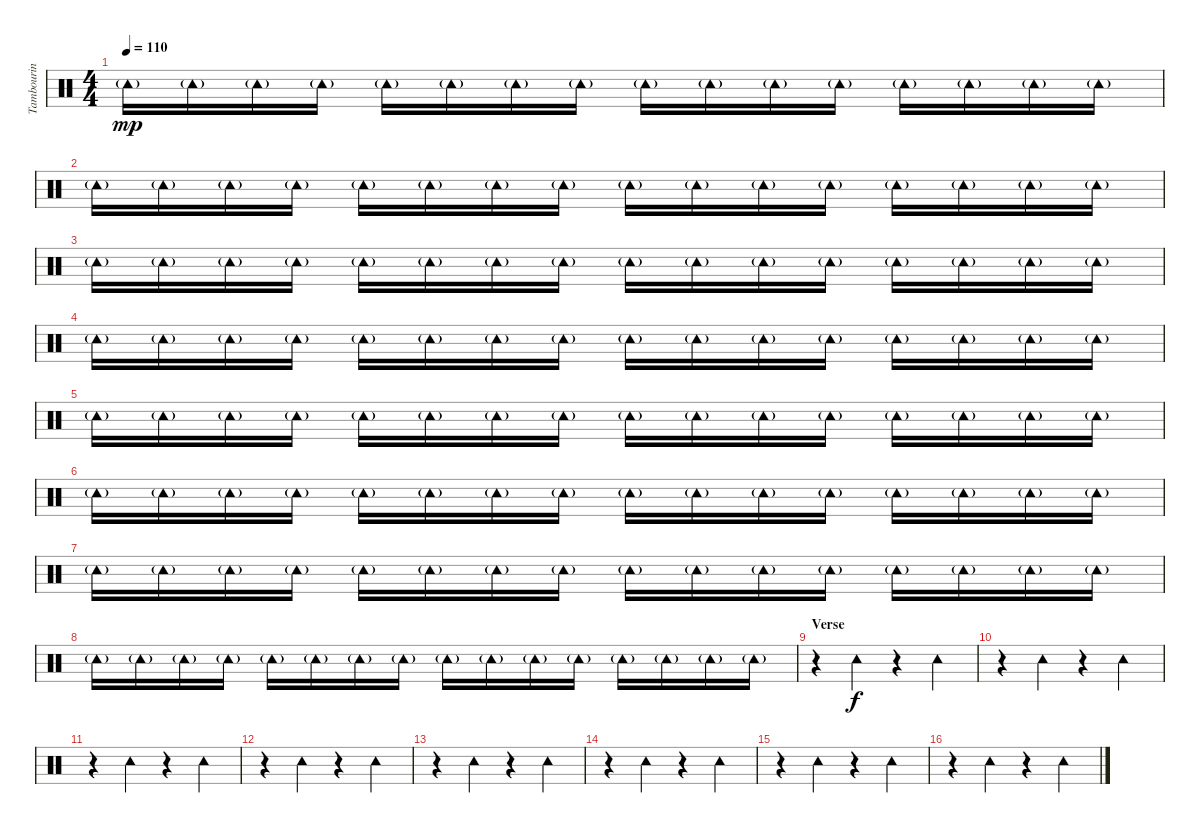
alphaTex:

\track ("Tambourin" "Tambourin") {instrument percussion}
\staff {score}
\articulation defaults
\ts (4 4)
\tempo 110
\clef neutral
\ks c "Tambourine (hit)"{g}.16{dy mp} "Tambourine (hit)"{g}.16 "Tambourine (hit)"{g}.16 "Tambourine (hit)"{g}.16 "Tambourine (hit)"{g}.16 "Tambourine (hit)"{g}.16 "Tambourine (hit)"{g}.16 "Tambourine (hit)"{g}.16 "Tambourine (hit)"{g}.16 "Tambourine (hit)"{g}.16 "Tambourine (hit)"{g}.16 "Tambourine (hit)"{g}.16 "Tambourine (hit)"{g}.16 "Tambourine (hit)"{g}.16 "Tambourine (hit)"{g}.16 "Tambourine (hit)"{g}.16
|
"Tambourine (hit)"{g}.16 "Tambourine (hit)"{g}.16 "Tambourine (hit)"{g}.16 "Tambourine (hit)"{g}.16 "Tambourine (hit)"{g}.16 "Tambourine (hit)"{g}.16 "Tambourine (hit)"{g}.16 "Tambourine (hit)"{g}.16 "Tambourine (hit)"{g}.16 "Tambourine (hit)"{g}.16 "Tambourine (hit)"{g}.16 "Tambourine (hit)"{g}.16 "Tambourine (hit)"{g}.16 "Tambourine (hit)"{g}.16 "Tambourine (hit)"{g}.16 "Tambourine (hit)"{g}.16 |
"Tambourine (hit)"{g}.16 "Tambourine (hit)"{g}.16 "Tambourine (hit)"{g}.16 "Tambourine (hit)"{g}.16 "Tambourine (hit)"{g}.16 "Tambourine (hit)"{g}.16 "Tambourine (hit)"{g}.16 "Tambourine (hit)"{g}.16 "Tambourine (hit)"{g}.16 "Tambourine (hit)"{g}.16 "Tambourine (hit)"{g}.16 "Tambourine (hit)"{g}.16 "Tambourine (hit)"{g}.16 "Tambourine (hit)"{g}.16 "Tambourine (hit)"{g}.16 "Tambourine (hit)"{g}.16 |
"Tambourine (hit)"{g}.16 "Tambourine (hit)"{g}.16 "Tambourine (hit)"{g}.16 "Tambourine (hit)"{g}.16 "Tambourine (hit)"{g}.16 "Tambourine (hit)"{g}.16 "Tambourine (hit)"{g}.16 "Tambourine (hit)"{g}.16 "Tambourine (hit)"{g}.16 "Tambourine (hit)"{g}.16 "Tambourine (hit)"{g}.16 "Tambourine (hit)"{g}.16 "Tambourine (hit)"{g}.16 "Tambourine (hit)"{g}.16 "Tambourine (hit)"{g}.16 "Tambourine (hit)"{g}.16 |
"Tambourine (hit)"{g}.16 "Tambourine (hit)"{g}.16 "Tambourine (hit)"{g}.16 "Tambourine (hit)"{g}.16 "Tambourine (hit)"{g}.16 "Tambourine (hit)"{g}.16 "Tambourine (hit)"{g}.16 "Tambourine (hit)"{g}.16 "Tambourine (hit)"{g}.16 "Tambourine (hit)"{g}.16 "Tambourine (hit)"{g}.16 "Tambourine (hit)"{g}.16 "Tambourine (hit)"{g}.16 "Tambourine (hit)"{g}.16 "Tambourine (hit)"{g}.16 "Tambourine (hit)"{g}.16 |
"Tambourine (hit)"{g}.16 "Tambourine (hit)"{g}.16 "Tambourine (hit)"{g}.16 "Tambourine (hit)"{g}.16 "Tambourine (hit)"{g}.16 "Tambourine (hit)"{g}.16 "Tambourine (hit)"{g}.16 "Tambourine (hit)"{g}.16 "Tambourine (hit)"{g}.16 "Tambourine (hit)"{g}.16 "Tambourine (hit)"{g}.16 "Tambourine (hit)"{g}.16 "Tambourine (hit)"{g}.16 "Tambourine (hit)"{g}.16 "Tambourine (hit)"{g}.16 "Tambourine (hit)"{g}.16 |
"Tambourine (hit)"{g}.16 "Tambourine (hit)"{g}.16 "Tambourine (hit)"{g}.16 "Tambourine (hit)"{g}.16 "Tambourine (hit)"{g}.16 "Tambourine (hit)"{g}.16 "Tambourine (hit)"{g}.16 "Tambourine (hit)"{g}.16 "Tambourine (hit)"{g}.16 "Tambourine (hit)"{g}.16 "Tambourine (hit)"{g}.16 "Tambourine (hit)"{g}.16 "Tambourine (hit)"{g}.16 "Tambourine (hit)"{g}.16 "Tambourine (hit)"{g}.16 "Tambourine (hit)"{g}.16 |
"Tambourine (hit)"{g}.16 "Tambourine (hit)"{g}.16 "Tambourine (hit)"{g}.16 "Tambourine (hit)"{g}.16 "Tambourine (hit)"{g}.16 "Tambourine (hit)"{g}.16 "Tambourine (hit)"{g}.16 "Tambourine (hit)"{g}.16 "Tambourine (hit)"{g}.16 "Tambourine (hit)"{g}.16 "Tambourine (hit)"{g}.16 "Tambourine (hit)"{g}.16 "Tambourine (hit)"{g}.16 "Tambourine (hit)"{g}.16 "Tambourine (hit)"{g}.16 "Tambourine (hit)"{g}.16 |
\section ("" "Verse")
r.4 "Tambourine (hit)".4{dy f} r.4 "Tambourine (hit)".4 |
r.4 "Tambourine (hit)".4 r.4 "Tambourine (hit)".4 |
r.4 "Tambourine (hit)".4 r.4 "Tambourine (hit)".4 |
r.4 "Tambourine (hit)".4 r.4 "Tambourine (hit)".4 |
r.4 "Tambourine (hit)".4 r.4 "Tambourine (hit)".4 |
r.4 "Tambourine (hit)".4 r.4 "Tambourine (hit)".4 |
r.4 "Tambourine (hit)".4 r.4 "Tambourine (hit)".4 |
r.4 "Tambourine (hit)".4 r.4 "Tambourine (hit)".4
